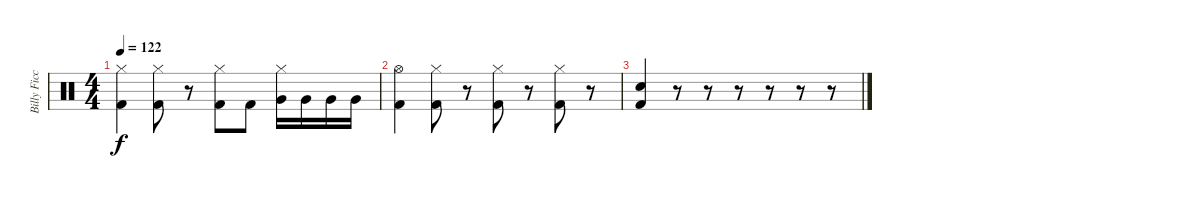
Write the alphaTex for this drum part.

\track ("Billy Ficca" "Billy Ficc") {instrument percussion}
\staff {score}
\articulation defaults
\ts (4 4)
\tempo 122
\clef neutral
\ks c
("Hi-Hat (closed)" "Kick (hit) 2").4{dy f} ("Hi-Hat (closed)" "Kick (hit) 2").8 r.8 ("Hi-Hat (closed)" "Kick (hit) 2").8 "Kick (hit) 2".8 ("Hi-Hat (closed)" "Very Low Tom (hit)").16 "Very Low Tom (hit)".16 "Very Low Tom (hit)".16 "Very Low Tom (hit)".16 |
("Hi-Hat (open)" "Kick (hit) 2").4 ("Hi-Hat (closed)" "Kick (hit) 2").8 r.8 ("Hi-Hat (closed)" "Kick (hit) 2").8 r.8 ("Hi-Hat (closed)" "Kick (hit) 2").8 r.8 |
("Electric Snare (hit)" "Kick (hit) 2").4 r.8 r.8 r.8 r.8 r.8 r.8
